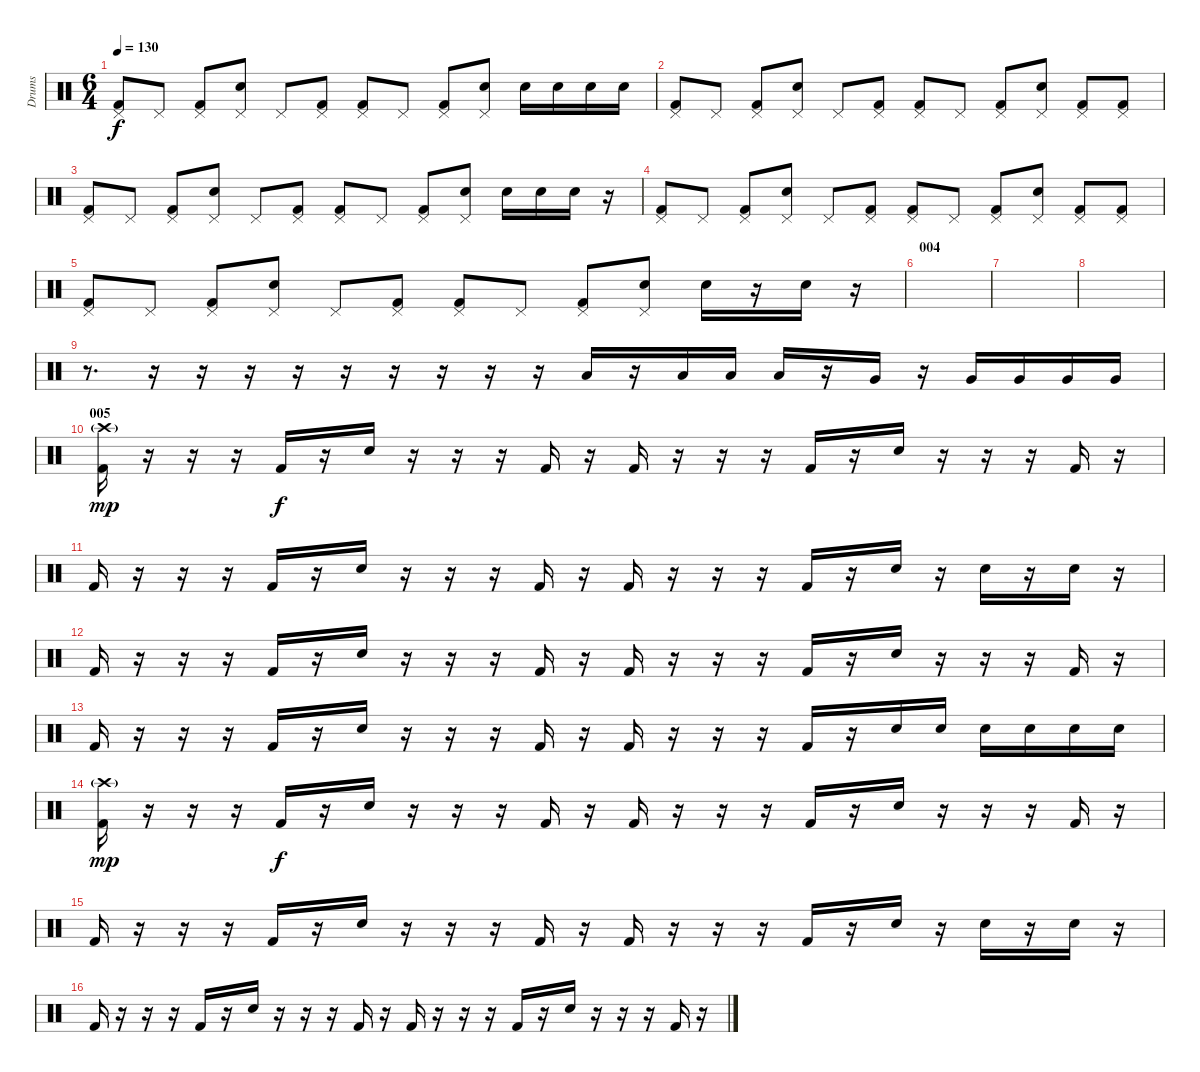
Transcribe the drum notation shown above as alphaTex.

\track ("Drums" "Drums") {instrument percussion}
\staff {score}
\articulation defaults
\ts (6 4)
\tempo 130
\clef neutral
\ks c
("Kick (hit) 2" "Pedal Hi-Hat (hit)").8{dy f} "Pedal Hi-Hat (hit)".8 ("Kick (hit) 2" "Pedal Hi-Hat (hit)").8 ("Electric Snare (hit)" "Pedal Hi-Hat (hit)").8 "Pedal Hi-Hat (hit)".8 ("Kick (hit) 2" "Pedal Hi-Hat (hit)").8 ("Kick (hit) 2" "Pedal Hi-Hat (hit)").8 "Pedal Hi-Hat (hit)".8 ("Kick (hit) 2" "Pedal Hi-Hat (hit)").8 ("Electric Snare (hit)" "Pedal Hi-Hat (hit)").8 "Electric Snare (hit)".16 "Electric Snare (hit)".16 "Electric Snare (hit)".16 "Electric Snare (hit)".16 |
("Kick (hit) 2" "Pedal Hi-Hat (hit)").8 "Pedal Hi-Hat (hit)".8 ("Kick (hit) 2" "Pedal Hi-Hat (hit)").8 ("Electric Snare (hit)" "Pedal Hi-Hat (hit)").8 "Pedal Hi-Hat (hit)".8 ("Kick (hit) 2" "Pedal Hi-Hat (hit)").8 ("Kick (hit) 2" "Pedal Hi-Hat (hit)").8 "Pedal Hi-Hat (hit)".8 ("Kick (hit) 2" "Pedal Hi-Hat (hit)").8 ("Electric Snare (hit)" "Pedal Hi-Hat (hit)").8 ("Kick (hit) 2" "Pedal Hi-Hat (hit)").8 ("Kick (hit) 2" "Pedal Hi-Hat (hit)").8 |
("Kick (hit) 2" "Pedal Hi-Hat (hit)").8 "Pedal Hi-Hat (hit)".8 ("Kick (hit) 2" "Pedal Hi-Hat (hit)").8 ("Electric Snare (hit)" "Pedal Hi-Hat (hit)").8 "Pedal Hi-Hat (hit)".8 ("Kick (hit) 2" "Pedal Hi-Hat (hit)").8 ("Kick (hit) 2" "Pedal Hi-Hat (hit)").8 "Pedal Hi-Hat (hit)".8 ("Kick (hit) 2" "Pedal Hi-Hat (hit)").8 ("Electric Snare (hit)" "Pedal Hi-Hat (hit)").8 "Electric Snare (hit)".16 "Electric Snare (hit)".16 "Electric Snare (hit)".16 r.16 |
("Kick (hit) 2" "Pedal Hi-Hat (hit)").8 "Pedal Hi-Hat (hit)".8 ("Kick (hit) 2" "Pedal Hi-Hat (hit)").8 ("Electric Snare (hit)" "Pedal Hi-Hat (hit)").8 "Pedal Hi-Hat (hit)".8 ("Kick (hit) 2" "Pedal Hi-Hat (hit)").8 ("Kick (hit) 2" "Pedal Hi-Hat (hit)").8 "Pedal Hi-Hat (hit)".8 ("Kick (hit) 2" "Pedal Hi-Hat (hit)").8 ("Electric Snare (hit)" "Pedal Hi-Hat (hit)").8 ("Kick (hit) 2" "Pedal Hi-Hat (hit)").8 ("Kick (hit) 2" "Pedal Hi-Hat (hit)").8 |
("Kick (hit) 2" "Pedal Hi-Hat (hit)").8 "Pedal Hi-Hat (hit)".8 ("Kick (hit) 2" "Pedal Hi-Hat (hit)").8 ("Electric Snare (hit)" "Pedal Hi-Hat (hit)").8 "Pedal Hi-Hat (hit)".8 ("Kick (hit) 2" "Pedal Hi-Hat (hit)").8 ("Kick (hit) 2" "Pedal Hi-Hat (hit)").8 "Pedal Hi-Hat (hit)".8 ("Kick (hit) 2" "Pedal Hi-Hat (hit)").8 ("Electric Snare (hit)" "Pedal Hi-Hat (hit)").8 "Electric Snare (hit)".16 r.16 "Electric Snare (hit)".16 r.16 |
\section ("" "004")
|
|
|
r.8{d} r.16 r.16 r.16 r.16 r.16 r.16 r.16 r.16 r.16 "Low Tom (hit)".16 r.16 "Low Tom (hit)".16 "Low Tom (hit)".16 "Low Tom (hit)".16 r.16 "Very Low Tom (hit)".16 r.16 "Very Low Tom (hit)".16 "Very Low Tom (hit)".16 "Very Low Tom (hit)".16 "Very Low Tom (hit)".16 |
\section ("" "005")
("Kick (hit) 2" "Crash high (hit)"{g}).16{dy mp} r.16 r.16 r.16 "Kick (hit) 2".16{dy f} r.16 "Electric Snare (hit)".16 r.16 r.16 r.16 "Kick (hit) 2".16 r.16 "Kick (hit) 2".16 r.16 r.16 r.16 "Kick (hit) 2".16 r.16 "Electric Snare (hit)".16 r.16 r.16 r.16 "Kick (hit) 2".16 r.16 |
"Kick (hit) 2".16 r.16 r.16 r.16 "Kick (hit) 2".16 r.16 "Electric Snare (hit)".16 r.16 r.16 r.16 "Kick (hit) 2".16 r.16 "Kick (hit) 2".16 r.16 r.16 r.16 "Kick (hit) 2".16 r.16 "Electric Snare (hit)".16 r.16 "Electric Snare (hit)".16 r.16 "Electric Snare (hit)".16 r.16 |
"Kick (hit) 2".16 r.16 r.16 r.16 "Kick (hit) 2".16 r.16 "Electric Snare (hit)".16 r.16 r.16 r.16 "Kick (hit) 2".16 r.16 "Kick (hit) 2".16 r.16 r.16 r.16 "Kick (hit) 2".16 r.16 "Electric Snare (hit)".16 r.16 r.16 r.16 "Kick (hit) 2".16 r.16 |
"Kick (hit) 2".16 r.16 r.16 r.16 "Kick (hit) 2".16 r.16 "Electric Snare (hit)".16 r.16 r.16 r.16 "Kick (hit) 2".16 r.16 "Kick (hit) 2".16 r.16 r.16 r.16 "Kick (hit) 2".16 r.16 "Electric Snare (hit)".16 "Electric Snare (hit)".16 "Electric Snare (hit)".16 "Electric Snare (hit)".16 "Electric Snare (hit)".16 "Electric Snare (hit)".16 |
("Kick (hit) 2" "Crash high (hit)"{g}).16{dy mp} r.16 r.16 r.16 "Kick (hit) 2".16{dy f} r.16 "Electric Snare (hit)".16 r.16 r.16 r.16 "Kick (hit) 2".16 r.16 "Kick (hit) 2".16 r.16 r.16 r.16 "Kick (hit) 2".16 r.16 "Electric Snare (hit)".16 r.16 r.16 r.16 "Kick (hit) 2".16 r.16 |
"Kick (hit) 2".16 r.16 r.16 r.16 "Kick (hit) 2".16 r.16 "Electric Snare (hit)".16 r.16 r.16 r.16 "Kick (hit) 2".16 r.16 "Kick (hit) 2".16 r.16 r.16 r.16 "Kick (hit) 2".16 r.16 "Electric Snare (hit)".16 r.16 "Electric Snare (hit)".16 r.16 "Electric Snare (hit)".16 r.16 |
"Kick (hit) 2".16 r.16 r.16 r.16 "Kick (hit) 2".16 r.16 "Electric Snare (hit)".16 r.16 r.16 r.16 "Kick (hit) 2".16 r.16 "Kick (hit) 2".16 r.16 r.16 r.16 "Kick (hit) 2".16 r.16 "Electric Snare (hit)".16 r.16 r.16 r.16 "Kick (hit) 2".16 r.16
